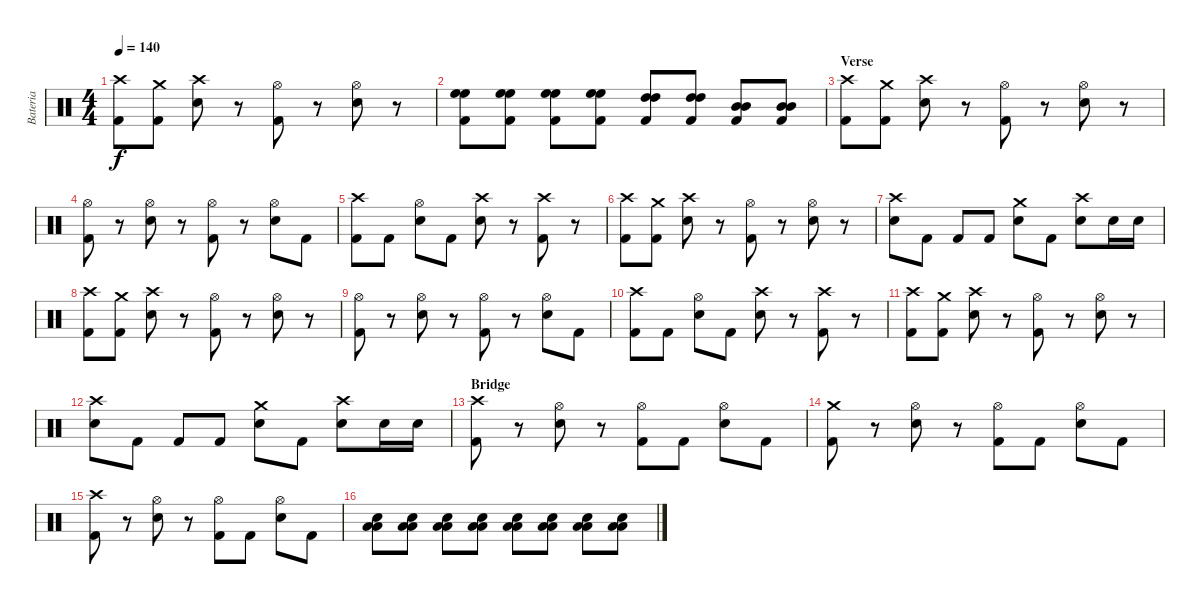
\track ("Bateria" "Bateria") {instrument percussion}
\staff {score}
\articulation defaults
\ts (4 4)
\tempo 140
\clef neutral
\ks c
("Crash high (hit)" "Kick (hit) 2").8{dy f} ("Crash medium (hit)" "Kick (hit) 2").8 ("Crash high (hit)" "Snare (hit) 2").8 r.8 ("Hi-Hat (open)" "Kick (hit) 2").8 r.8 ("Hi-Hat (open)" "Snare (hit) 2").8 r.8 |
("High Floor Tom (hit)" "High Floor Tom (hit)" "Kick (hit) 2").8 ("High Floor Tom (hit)" "High Floor Tom (hit)" "Kick (hit) 2").8 ("High Floor Tom (hit)" "High Floor Tom (hit)" "Kick (hit) 2").8 ("High Floor Tom (hit)" "High Floor Tom (hit)" "Kick (hit) 2").8 ("High Tom (hit)" "High Tom (hit)" "Kick (hit) 2").8 ("High Tom (hit)" "High Tom (hit)" "Kick (hit) 2").8 ("Mid Tom (hit)" "Mid Tom (hit)" "Kick (hit) 2").8 ("Mid Tom (hit)" "Mid Tom (hit)" "Kick (hit) 2").8 |
\section ("" "Verse")
("Crash high (hit)" "Kick (hit) 2").8 ("Crash medium (hit)" "Kick (hit) 2").8 ("Crash high (hit)" "Snare (hit) 2").8 r.8 ("Hi-Hat (open)" "Kick (hit) 2").8 r.8 ("Hi-Hat (open)" "Snare (hit) 2").8 r.8 |
("Hi-Hat (open)" "Kick (hit) 2").8 r.8 ("Hi-Hat (open)" "Snare (hit) 2").8 r.8 ("Hi-Hat (open)" "Kick (hit) 2").8 r.8 ("Hi-Hat (open)" "Snare (hit) 2").8 "Kick (hit) 2".8 |
("Crash high (hit)" "Kick (hit) 2").8 "Kick (hit) 2".8 ("Hi-Hat (open)" "Snare (hit) 2").8 "Kick (hit) 2".8 ("Crash high (hit)" "Snare (hit) 2").8 r.8 ("Crash high (hit)" "Kick (hit) 2").8 r.8 |
("Crash high (hit)" "Kick (hit) 2").8 ("Crash medium (hit)" "Kick (hit) 2").8 ("Crash high (hit)" "Snare (hit) 2").8 r.8 ("Hi-Hat (open)" "Kick (hit) 2").8 r.8 ("Hi-Hat (open)" "Snare (hit) 2").8 r.8 |
("Crash high (hit)" "Snare (hit) 2").8 "Kick (hit) 2".8 "Kick (hit) 2".8 "Kick (hit) 2".8 ("Crash medium (hit)" "Snare (hit) 2").8 "Kick (hit) 2".8 ("Crash high (hit)" "Snare (hit) 2").8 "Snare (hit) 2".16 "Snare (hit) 2".16 |
("Crash high (hit)" "Kick (hit) 2").8 ("Crash medium (hit)" "Kick (hit) 2").8 ("Crash high (hit)" "Snare (hit) 2").8 r.8 ("Hi-Hat (open)" "Kick (hit) 2").8 r.8 ("Hi-Hat (open)" "Snare (hit) 2").8 r.8 |
("Hi-Hat (open)" "Kick (hit) 2").8 r.8 ("Hi-Hat (open)" "Snare (hit) 2").8 r.8 ("Hi-Hat (open)" "Kick (hit) 2").8 r.8 ("Hi-Hat (open)" "Snare (hit) 2").8 "Kick (hit) 2".8 |
("Crash high (hit)" "Kick (hit) 2").8 "Kick (hit) 2".8 ("Hi-Hat (open)" "Snare (hit) 2").8 "Kick (hit) 2".8 ("Crash high (hit)" "Snare (hit) 2").8 r.8 ("Crash high (hit)" "Kick (hit) 2").8 r.8 |
("Crash high (hit)" "Kick (hit) 2").8 ("Crash medium (hit)" "Kick (hit) 2").8 ("Crash high (hit)" "Snare (hit) 2").8 r.8 ("Hi-Hat (open)" "Kick (hit) 2").8 r.8 ("Hi-Hat (open)" "Snare (hit) 2").8 r.8 |
("Crash high (hit)" "Snare (hit) 2").8 "Kick (hit) 2".8 "Kick (hit) 2".8 "Kick (hit) 2".8 ("Crash medium (hit)" "Snare (hit) 2").8 "Kick (hit) 2".8 ("Crash high (hit)" "Snare (hit) 2").8 "Snare (hit) 2".16 "Snare (hit) 2".16 |
\section ("" "Bridge")
("Crash high (hit)" "Kick (hit) 2").8 r.8 ("Hi-Hat (open)" "Snare (hit) 2").8 r.8 ("Hi-Hat (open)" "Kick (hit) 2").8 "Kick (hit) 2".8 ("Hi-Hat (open)" "Snare (hit) 2").8 "Kick (hit) 2".8 |
("Crash medium (hit)" "Kick (hit) 2").8 r.8 ("Hi-Hat (open)" "Snare (hit) 2").8 r.8 ("Hi-Hat (open)" "Kick (hit) 2").8 "Kick (hit) 2".8 ("Hi-Hat (open)" "Snare (hit) 2").8 "Kick (hit) 2".8 |
("Crash high (hit)" "Kick (hit) 2").8 r.8 ("Hi-Hat (open)" "Snare (hit) 2").8 r.8 ("Hi-Hat (open)" "Kick (hit) 2").8 "Kick (hit) 2".8 ("Hi-Hat (open)" "Snare (hit) 2").8 "Kick (hit) 2".8 |
("Low Floor Tom (hit)" "Low Floor Tom (hit)" "Snare (hit) 2").8 ("Low Floor Tom (hit)" "Low Floor Tom (hit)" "Snare (hit) 2").8 ("Low Floor Tom (hit)" "Low Floor Tom (hit)" "Snare (hit) 2").8 ("Low Floor Tom (hit)" "Low Floor Tom (hit)" "Snare (hit) 2").8 ("Low Floor Tom (hit)" "Low Floor Tom (hit)" "Snare (hit) 2").8 ("Low Floor Tom (hit)" "Low Floor Tom (hit)" "Snare (hit) 2").8 ("Low Floor Tom (hit)" "Low Floor Tom (hit)" "Snare (hit) 2").8 ("Low Floor Tom (hit)" "Low Floor Tom (hit)" "Snare (hit) 2").8
